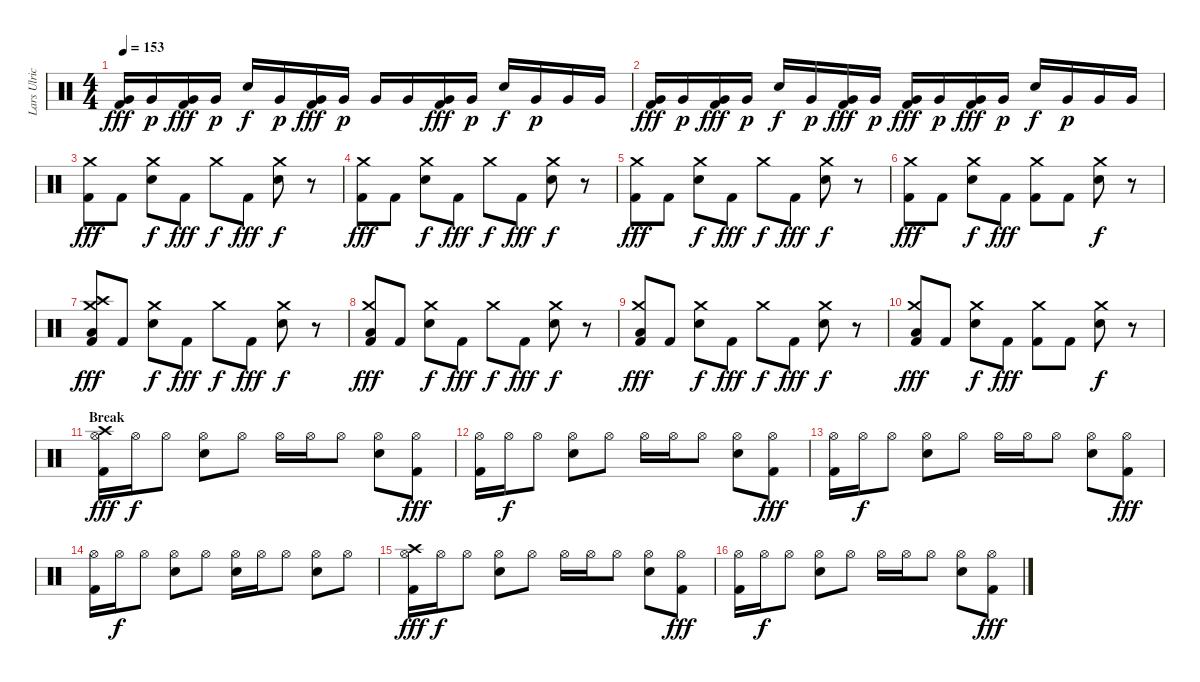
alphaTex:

\track ("Lars Ulrich (Drums)" "Lars Ulric") {instrument percussion}
\staff {score}
\articulation defaults
\ts (4 4)
\tempo 153
\clef neutral
\ks c
("Very Low Tom (hit)" "Kick (hit) 2").16{dy fff} "Very Low Tom (hit)".16{dy p} ("Very Low Tom (hit)" "Kick (hit) 2").16{dy fff} "Very Low Tom (hit)".16{dy p} "Electric Snare (hit)".16{dy f} "Very Low Tom (hit)".16{dy p} ("Very Low Tom (hit)" "Kick (hit) 2").16{dy fff} "Very Low Tom (hit)".16{dy p} "Very Low Tom (hit)".16 "Very Low Tom (hit)".16 ("Very Low Tom (hit)" "Kick (hit) 2").16{dy fff} "Very Low Tom (hit)".16{dy p} "Electric Snare (hit)".16{dy f} "Very Low Tom (hit)".16{dy p} "Very Low Tom (hit)".16 "Very Low Tom (hit)".16 |
("Very Low Tom (hit)" "Kick (hit) 2").16{dy fff} "Very Low Tom (hit)".16{dy p} ("Very Low Tom (hit)" "Kick (hit) 2").16{dy fff} "Very Low Tom (hit)".16{dy p} "Electric Snare (hit)".16{dy f} "Very Low Tom (hit)".16{dy p} ("Very Low Tom (hit)" "Kick (hit) 2").16{dy fff} "Very Low Tom (hit)".16{dy p} ("Very Low Tom (hit)" "Kick (hit) 2").16{dy fff} "Very Low Tom (hit)".16{dy p} ("Very Low Tom (hit)" "Kick (hit) 2").16{dy fff} "Very Low Tom (hit)".16{dy p} "Electric Snare (hit)".16{dy f} "Very Low Tom (hit)".16{dy p} "Very Low Tom (hit)".16 "Very Low Tom (hit)".16 |
("Crash medium (hit)" "Kick (hit) 2").8{dy fff} "Kick (hit) 2".8 ("Crash medium (hit)" "Electric Snare (hit)").8{dy f} "Kick (hit) 2".8{dy fff} "Crash medium (hit)".8{dy f} "Kick (hit) 2".8{dy fff} ("Crash medium (hit)" "Electric Snare (hit)").8{dy f} r.8 |
("Crash medium (hit)" "Kick (hit) 2").8{dy fff} "Kick (hit) 2".8 ("Crash medium (hit)" "Electric Snare (hit)").8{dy f} "Kick (hit) 2".8{dy fff} "Crash medium (hit)".8{dy f} "Kick (hit) 2".8{dy fff} ("Crash medium (hit)" "Electric Snare (hit)").8{dy f} r.8 |
("Crash medium (hit)" "Kick (hit) 2").8{dy fff} "Kick (hit) 2".8 ("Crash medium (hit)" "Electric Snare (hit)").8{dy f} "Kick (hit) 2".8{dy fff} "Crash medium (hit)".8{dy f} "Kick (hit) 2".8{dy fff} ("Crash medium (hit)" "Electric Snare (hit)").8{dy f} r.8 |
("Crash medium (hit)" "Kick (hit) 2").8{dy fff} "Kick (hit) 2".8 ("Crash medium (hit)" "Electric Snare (hit)").8{dy f} "Kick (hit) 2".8{dy fff} ("Crash medium (hit)" "Kick (hit) 2").8 "Kick (hit) 2".8 ("Crash medium (hit)" "Electric Snare (hit)").8{dy f} r.8 |
("Crash medium (hit)" "Crash high (hit)" "Low Floor Tom (hit)" "Kick (hit) 2").8{dy fff} "Kick (hit) 2".8 ("Crash medium (hit)" "Electric Snare (hit)").8{dy f} "Kick (hit) 2".8{dy fff} "Crash medium (hit)".8{dy f} "Kick (hit) 2".8{dy fff} ("Crash medium (hit)" "Electric Snare (hit)").8{dy f} r.8 |
("Crash medium (hit)" "Low Floor Tom (hit)" "Kick (hit) 2").8{dy fff} "Kick (hit) 2".8 ("Crash medium (hit)" "Electric Snare (hit)").8{dy f} "Kick (hit) 2".8{dy fff} "Crash medium (hit)".8{dy f} "Kick (hit) 2".8{dy fff} ("Crash medium (hit)" "Electric Snare (hit)").8{dy f} r.8 |
("Crash medium (hit)" "Low Floor Tom (hit)" "Kick (hit) 2").8{dy fff} "Kick (hit) 2".8 ("Crash medium (hit)" "Electric Snare (hit)").8{dy f} "Kick (hit) 2".8{dy fff} "Crash medium (hit)".8{dy f} "Kick (hit) 2".8{dy fff} ("Crash medium (hit)" "Electric Snare (hit)").8{dy f} r.8 |
("Crash medium (hit)" "Low Floor Tom (hit)" "Kick (hit) 2").8{dy fff} "Kick (hit) 2".8 ("Crash medium (hit)" "Electric Snare (hit)").8{dy f} "Kick (hit) 2".8{dy fff} ("Crash medium (hit)" "Kick (hit) 2").8 "Kick (hit) 2".8 ("Crash medium (hit)" "Electric Snare (hit)").8{dy f} r.8 |
\section ("" "Break")
("Crash high (hit)" "Hi-Hat (open)" "Kick (hit) 2").16{dy fff} "Hi-Hat (open)".16{dy f} "Hi-Hat (open)".8 ("Hi-Hat (open)" "Electric Snare (hit)").8 "Hi-Hat (open)".8 "Hi-Hat (open)".16 "Hi-Hat (open)".16 "Hi-Hat (open)".8 ("Hi-Hat (open)" "Electric Snare (hit)").8 ("Hi-Hat (open)" "Kick (hit) 2").8{dy fff} |
("Hi-Hat (open)" "Kick (hit) 2").16 "Hi-Hat (open)".16{dy f} "Hi-Hat (open)".8 ("Hi-Hat (open)" "Electric Snare (hit)").8 "Hi-Hat (open)".8 "Hi-Hat (open)".16 "Hi-Hat (open)".16 "Hi-Hat (open)".8 ("Hi-Hat (open)" "Electric Snare (hit)").8 ("Hi-Hat (open)" "Kick (hit) 2").8{dy fff} |
("Hi-Hat (open)" "Kick (hit) 2").16 "Hi-Hat (open)".16{dy f} "Hi-Hat (open)".8 ("Hi-Hat (open)" "Electric Snare (hit)").8 "Hi-Hat (open)".8 "Hi-Hat (open)".16 "Hi-Hat (open)".16 "Hi-Hat (open)".8 ("Hi-Hat (open)" "Electric Snare (hit)").8 ("Hi-Hat (open)" "Kick (hit) 2").8{dy fff} |
("Hi-Hat (open)" "Kick (hit) 2").16 "Hi-Hat (open)".16{dy f} "Hi-Hat (open)".8 ("Hi-Hat (open)" "Electric Snare (hit)").8 "Hi-Hat (open)".8 ("Hi-Hat (open)" "Electric Snare (hit)").16 "Hi-Hat (open)".16 "Hi-Hat (open)".8 ("Hi-Hat (open)" "Electric Snare (hit)").8 "Hi-Hat (open)".8 |
("Crash high (hit)" "Hi-Hat (open)" "Kick (hit) 2").16{dy fff} "Hi-Hat (open)".16{dy f} "Hi-Hat (open)".8 ("Hi-Hat (open)" "Electric Snare (hit)").8 "Hi-Hat (open)".8 "Hi-Hat (open)".16 "Hi-Hat (open)".16 "Hi-Hat (open)".8 ("Hi-Hat (open)" "Electric Snare (hit)").8 ("Hi-Hat (open)" "Kick (hit) 2").8{dy fff} |
("Hi-Hat (open)" "Kick (hit) 2").16 "Hi-Hat (open)".16{dy f} "Hi-Hat (open)".8 ("Hi-Hat (open)" "Electric Snare (hit)").8 "Hi-Hat (open)".8 "Hi-Hat (open)".16 "Hi-Hat (open)".16 "Hi-Hat (open)".8 ("Hi-Hat (open)" "Electric Snare (hit)").8 ("Hi-Hat (open)" "Kick (hit) 2").8{dy fff}
